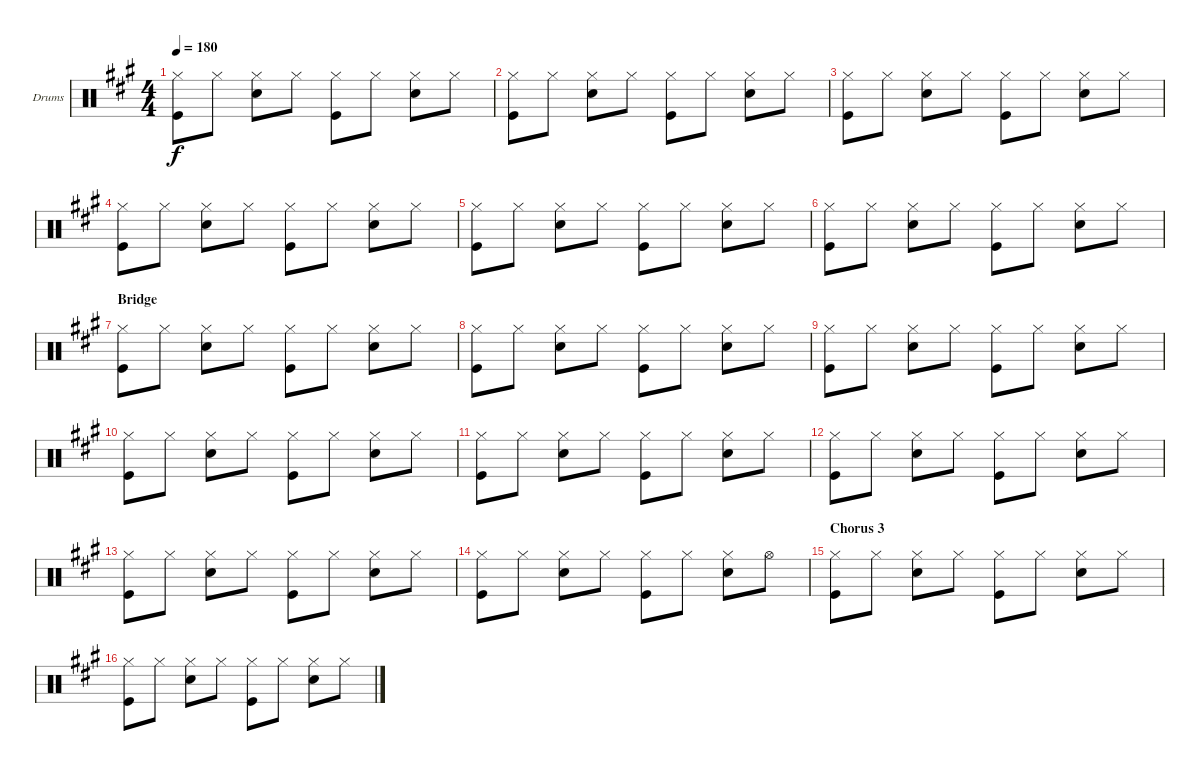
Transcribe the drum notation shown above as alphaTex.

\defaultSystemsLayout 4
\bracketExtendMode groupsimilarinstruments
\firstSystemTrackNameOrientation horizontal
\otherSystemsTrackNameOrientation horizontal
\track ("Drumkit" "Drums") {instrument percussion}
\staff {score}
\articulation defaults
\ts (4 4)
\tempo 180
\clef neutral
\ks f#minor
("Hi-Hat (closed)" "Kick (hit)").8{dy f} "Hi-Hat (closed)".8 ("Hi-Hat (closed)" "Snare (hit) 2").8 "Hi-Hat (closed)".8 ("Hi-Hat (closed)" "Kick (hit)").8 "Hi-Hat (closed)".8 ("Hi-Hat (closed)" "Snare (hit) 2").8 "Hi-Hat (closed)".8 |
("Hi-Hat (closed)" "Kick (hit)").8 "Hi-Hat (closed)".8 ("Hi-Hat (closed)" "Snare (hit) 2").8 "Hi-Hat (closed)".8 ("Hi-Hat (closed)" "Kick (hit)").8 "Hi-Hat (closed)".8 ("Hi-Hat (closed)" "Snare (hit) 2").8 "Hi-Hat (closed)".8 |
("Hi-Hat (closed)" "Kick (hit)").8 "Hi-Hat (closed)".8 ("Hi-Hat (closed)" "Snare (hit) 2").8 "Hi-Hat (closed)".8 ("Hi-Hat (closed)" "Kick (hit)").8 "Hi-Hat (closed)".8 ("Hi-Hat (closed)" "Snare (hit) 2").8 "Hi-Hat (closed)".8 |
("Hi-Hat (closed)" "Kick (hit)").8 "Hi-Hat (closed)".8 ("Hi-Hat (closed)" "Snare (hit) 2").8 "Hi-Hat (closed)".8 ("Hi-Hat (closed)" "Kick (hit)").8 "Hi-Hat (closed)".8 ("Hi-Hat (closed)" "Snare (hit) 2").8 "Hi-Hat (closed)".8 |
("Hi-Hat (closed)" "Kick (hit)").8 "Hi-Hat (closed)".8 ("Hi-Hat (closed)" "Snare (hit) 2").8 "Hi-Hat (closed)".8 ("Hi-Hat (closed)" "Kick (hit)").8 "Hi-Hat (closed)".8 ("Hi-Hat (closed)" "Snare (hit) 2").8 "Hi-Hat (closed)".8 |
("Hi-Hat (closed)" "Kick (hit)").8 "Hi-Hat (closed)".8 ("Hi-Hat (closed)" "Snare (hit) 2").8 "Hi-Hat (closed)".8 ("Hi-Hat (closed)" "Kick (hit)").8 "Hi-Hat (closed)".8 ("Hi-Hat (closed)" "Snare (hit) 2").8 "Hi-Hat (closed)".8 |
\section ("" "Bridge")
("Hi-Hat (closed)" "Kick (hit)").8 "Hi-Hat (closed)".8 ("Hi-Hat (closed)" "Snare (hit) 2").8 "Hi-Hat (closed)".8 ("Hi-Hat (closed)" "Kick (hit)").8 "Hi-Hat (closed)".8 ("Hi-Hat (closed)" "Snare (hit) 2").8 "Hi-Hat (closed)".8 |
("Hi-Hat (closed)" "Kick (hit)").8 "Hi-Hat (closed)".8 ("Hi-Hat (closed)" "Snare (hit) 2").8 "Hi-Hat (closed)".8 ("Hi-Hat (closed)" "Kick (hit)").8 "Hi-Hat (closed)".8 ("Hi-Hat (closed)" "Snare (hit) 2").8 "Hi-Hat (closed)".8 |
("Hi-Hat (closed)" "Kick (hit)").8 "Hi-Hat (closed)".8 ("Hi-Hat (closed)" "Snare (hit) 2").8 "Hi-Hat (closed)".8 ("Hi-Hat (closed)" "Kick (hit)").8 "Hi-Hat (closed)".8 ("Hi-Hat (closed)" "Snare (hit) 2").8 "Hi-Hat (closed)".8 |
("Hi-Hat (closed)" "Kick (hit)").8 "Hi-Hat (closed)".8 ("Hi-Hat (closed)" "Snare (hit) 2").8 "Hi-Hat (closed)".8 ("Hi-Hat (closed)" "Kick (hit)").8 "Hi-Hat (closed)".8 ("Hi-Hat (closed)" "Snare (hit) 2").8 "Hi-Hat (closed)".8 |
("Hi-Hat (closed)" "Kick (hit)").8 "Hi-Hat (closed)".8 ("Hi-Hat (closed)" "Snare (hit) 2").8 "Hi-Hat (closed)".8 ("Hi-Hat (closed)" "Kick (hit)").8 "Hi-Hat (closed)".8 ("Hi-Hat (closed)" "Snare (hit) 2").8 "Hi-Hat (closed)".8 |
("Hi-Hat (closed)" "Kick (hit)").8 "Hi-Hat (closed)".8 ("Hi-Hat (closed)" "Snare (hit) 2").8 "Hi-Hat (closed)".8 ("Hi-Hat (closed)" "Kick (hit)").8 "Hi-Hat (closed)".8 ("Hi-Hat (closed)" "Snare (hit) 2").8 "Hi-Hat (closed)".8 |
("Hi-Hat (closed)" "Kick (hit)").8 "Hi-Hat (closed)".8 ("Hi-Hat (closed)" "Snare (hit) 2").8 "Hi-Hat (closed)".8 ("Hi-Hat (closed)" "Kick (hit)").8 "Hi-Hat (closed)".8 ("Hi-Hat (closed)" "Snare (hit) 2").8 "Hi-Hat (closed)".8 |
("Hi-Hat (closed)" "Kick (hit)").8 "Hi-Hat (closed)".8 ("Hi-Hat (closed)" "Snare (hit) 2").8 "Hi-Hat (closed)".8 ("Hi-Hat (closed)" "Kick (hit)").8 "Hi-Hat (closed)".8 ("Hi-Hat (closed)" "Snare (hit) 2").8 "Hi-Hat (open)".8 |
\section ("" "Chorus 3")
("Hi-Hat (closed)" "Kick (hit)").8 "Hi-Hat (closed)".8 ("Hi-Hat (closed)" "Snare (hit) 2").8 "Hi-Hat (closed)".8 ("Hi-Hat (closed)" "Kick (hit)").8 "Hi-Hat (closed)".8 ("Hi-Hat (closed)" "Snare (hit) 2").8 "Hi-Hat (closed)".8 |
("Hi-Hat (closed)" "Kick (hit)").8 "Hi-Hat (closed)".8 ("Hi-Hat (closed)" "Snare (hit) 2").8 "Hi-Hat (closed)".8 ("Hi-Hat (closed)" "Kick (hit)").8 "Hi-Hat (closed)".8 ("Hi-Hat (closed)" "Snare (hit) 2").8 "Hi-Hat (closed)".8
